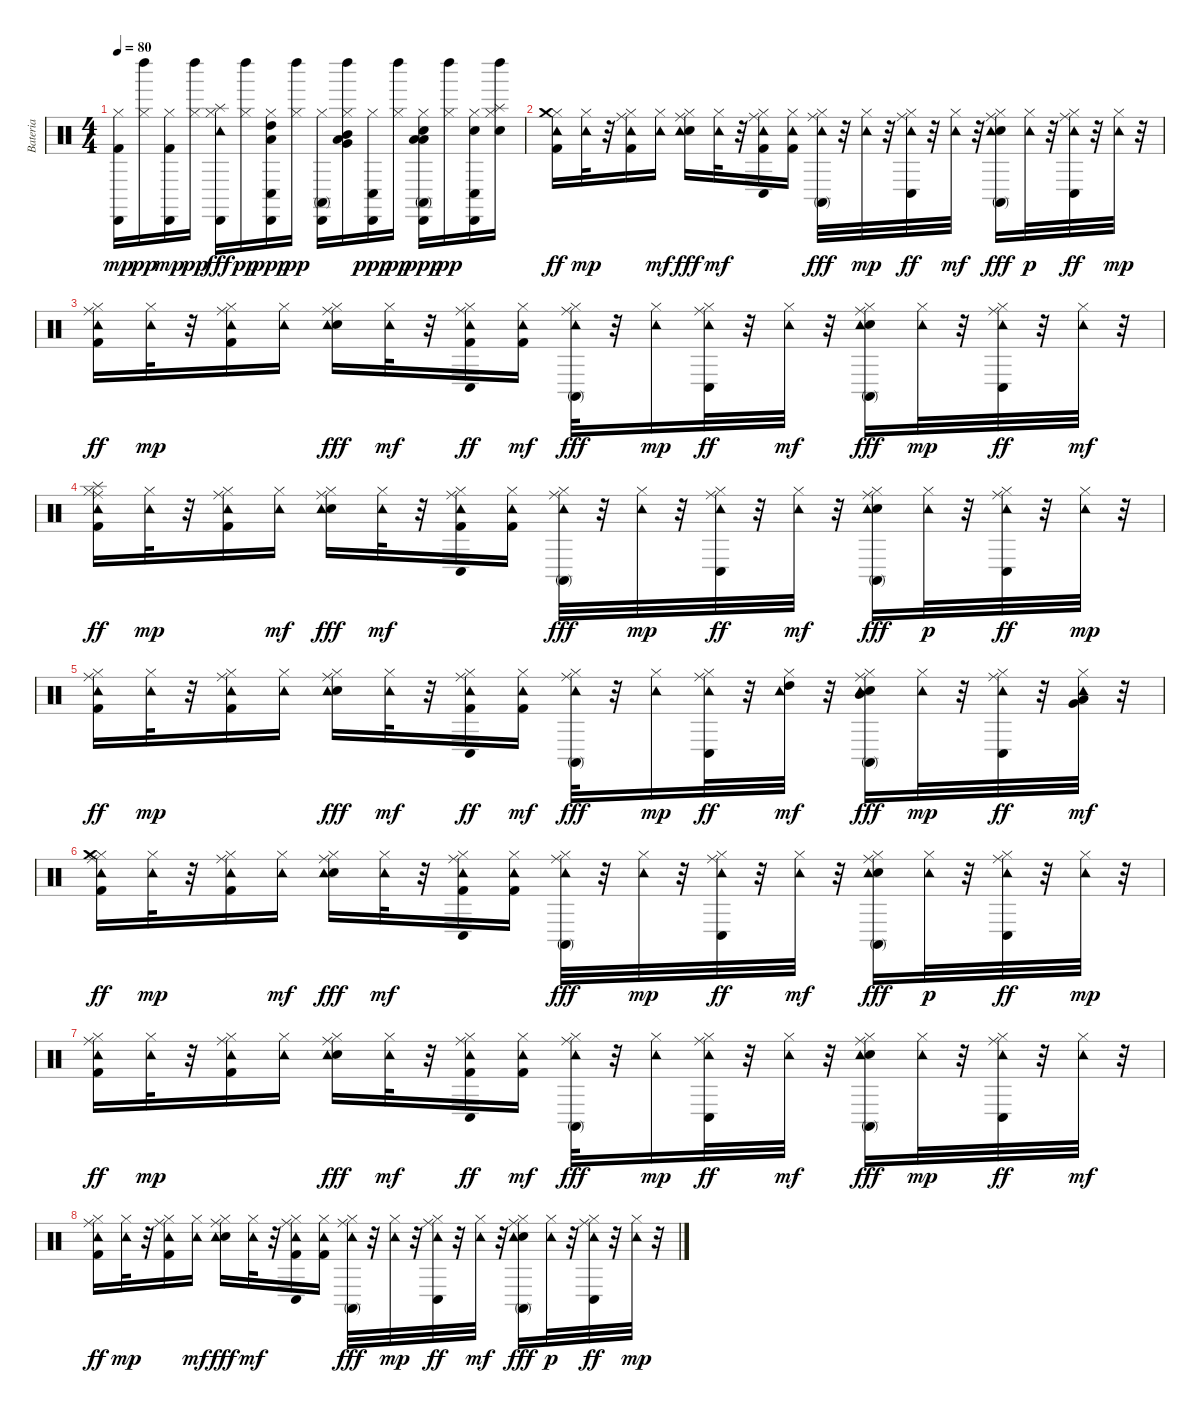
\track ("Bateria" "Bateria") {instrument percussion}
\staff {score}
\articulation defaults
\ts (4 4)
\tempo 80
\clef neutral
\ks c
("Hi-Hat (closed)" "Cabasa (hit)" "Kick (hit) 2").16{dy mp} ("Hi-Hat (closed)" "Left Maraca (hit)").16{dy pp} ("Hi-Hat (closed)" "Cabasa (hit)" "Kick (hit) 2").16{dy mp} ("Hi-Hat (closed)" "Left Maraca (hit)").16{dy pp} ("Hi-Hat (closed)" "Splash (hit)" "Cabasa (hit)" "Tambourine (hit)").16{dy fff} ("Hi-Hat (closed)" "Left Maraca (hit)").16{dy pp} ("Hi-Hat (closed)" "Conga low (hit)" "Cabasa (hit)" "High Tom (hit)" "Low Tom (hit)").16{dy ppp} ("Hi-Hat (closed)" "Left Maraca (hit)").16{dy pp} ("Hi-Hat (closed)" "Conga high (mute)" "Cabasa (hit)").16 ("Hi-Hat (closed)" "Left Maraca (hit)" "Very Low Tom (hit)" "Low Floor Tom (hit)" "Mid Tom (hit)").16 ("Hi-Hat (closed)" "Conga low (hit)" "Cabasa (hit)").16{dy ppp} ("Hi-Hat (closed)" "Left Maraca (hit)").16{dy pp} ("Electric Snare (hit)" "Hi-Hat (closed)" "Conga high (mute)" "Cabasa (hit)" "Low Floor Tom (hit)" "Low Tom (hit)").16{dy ppp} ("Hi-Hat (closed)" "Left Maraca (hit)").16{dy pp} ("Hi-Hat (closed)" "Conga low (hit)" "Electric Snare (hit)" "Cabasa (hit)").16 ("Hi-Hat (closed)" "Electric Snare (hit)" "Splash (hit)" "Left Maraca (hit)").16 |
("Hi-Hat (closed)" "Crash medium (hit)" "Tambourine (hit)" "Kick (hit) 2").16{dy ff} ("Hi-Hat (closed)" "Tambourine (hit)").32{dy mp} r.32 ("Hi-Hat (closed)" "Ride (middle)" "Tambourine (hit)" "Kick (hit) 2").16 ("Hi-Hat (closed)" "Tambourine (hit)").16{dy mf} ("Electric Snare (hit)" "Hi-Hat (closed)" "Ride (middle)" "Tambourine (hit)").16{dy fff} ("Hi-Hat (closed)" "Tambourine (hit)").32{dy mf} r.32 ("Hi-Hat (closed)" "Conga low (hit)" "Ride (middle)" "Tambourine (hit)" "Kick (hit) 2").16 ("Hi-Hat (closed)" "Tambourine (hit)" "Kick (hit) 2").16 ("Hi-Hat (closed)" "Conga high (mute)" "Ride (middle)" "Tambourine (hit)").32{dy fff} r.32 ("Hi-Hat (closed)" "Tambourine (hit)").32{dy mp} r.32 ("Hi-Hat (closed)" "Conga low (hit)" "Ride (middle)" "Tambourine (hit)").32{dy ff} r.32 ("Hi-Hat (closed)" "Tambourine (hit)").32{dy mf} r.32 ("Electric Snare (hit)" "Hi-Hat (closed)" "Conga high (mute)" "Ride (middle)" "Tambourine (hit)").16{dy fff} ("Hi-Hat (closed)" "Tambourine (hit)").32{dy p} r.32 ("Hi-Hat (closed)" "Conga low (hit)" "Ride (middle)" "Tambourine (hit)").32{dy ff} r.32 ("Hi-Hat (closed)" "Tambourine (hit)").32{dy mp} r.32 |
("Hi-Hat (closed)" "Ride (middle)" "Tambourine (hit)" "Kick (hit) 2").16{dy ff} ("Hi-Hat (closed)" "Tambourine (hit)").32{dy mp} r.32 ("Hi-Hat (closed)" "Ride (middle)" "Tambourine (hit)" "Kick (hit) 2").16 ("Hi-Hat (closed)" "Tambourine (hit)").16 ("Electric Snare (hit)" "Hi-Hat (closed)" "Ride (middle)" "Tambourine (hit)").16{dy fff} ("Hi-Hat (closed)" "Tambourine (hit)").32{dy mf} r.32 ("Hi-Hat (closed)" "Conga low (hit)" "Ride (middle)" "Tambourine (hit)" "Kick (hit) 2").16{dy ff} ("Hi-Hat (closed)" "Tambourine (hit)" "Kick (hit) 2").16{dy mf} ("Hi-Hat (closed)" "Conga high (mute)" "Ride (middle)" "Tambourine (hit)").32{dy fff} r.32 ("Hi-Hat (closed)" "Tambourine (hit)").16{dy mp} ("Hi-Hat (closed)" "Conga low (hit)" "Ride (middle)" "Tambourine (hit)").32{dy ff} r.32 ("Hi-Hat (closed)" "Tambourine (hit)").32{dy mf} r.32 ("Electric Snare (hit)" "Hi-Hat (closed)" "Conga high (mute)" "Ride (middle)" "Tambourine (hit)").16{dy fff} ("Hi-Hat (closed)" "Tambourine (hit)").32{dy mp} r.32 ("Hi-Hat (closed)" "Conga low (hit)" "Ride (middle)" "Tambourine (hit)").32{dy ff} r.32 ("Hi-Hat (closed)" "Tambourine (hit)").32{dy mf} r.32 |
("Hi-Hat (closed)" "Ride (middle)" "Splash (hit)" "Tambourine (hit)" "Kick (hit) 2").16{dy ff} ("Hi-Hat (closed)" "Tambourine (hit)").32{dy mp} r.32 ("Hi-Hat (closed)" "Ride (middle)" "Tambourine (hit)" "Kick (hit) 2").16 ("Hi-Hat (closed)" "Tambourine (hit)").16{dy mf} ("Electric Snare (hit)" "Hi-Hat (closed)" "Ride (middle)" "Tambourine (hit)").16{dy fff} ("Hi-Hat (closed)" "Tambourine (hit)").32{dy mf} r.32 ("Hi-Hat (closed)" "Conga low (hit)" "Ride (middle)" "Tambourine (hit)" "Kick (hit) 2").16 ("Hi-Hat (closed)" "Tambourine (hit)" "Kick (hit) 2").16 ("Hi-Hat (closed)" "Conga high (mute)" "Ride (middle)" "Tambourine (hit)").32{dy fff} r.32 ("Hi-Hat (closed)" "Tambourine (hit)").32{dy mp} r.32 ("Hi-Hat (closed)" "Conga low (hit)" "Ride (middle)" "Tambourine (hit)").32{dy ff} r.32 ("Hi-Hat (closed)" "Tambourine (hit)").32{dy mf} r.32 ("Electric Snare (hit)" "Hi-Hat (closed)" "Conga high (mute)" "Ride (middle)" "Tambourine (hit)").16{dy fff} ("Hi-Hat (closed)" "Tambourine (hit)").32{dy p} r.32 ("Hi-Hat (closed)" "Conga low (hit)" "Ride (middle)" "Tambourine (hit)").32{dy ff} r.32 ("Hi-Hat (closed)" "Tambourine (hit)").32{dy mp} r.32 |
("Hi-Hat (closed)" "Ride (middle)" "Tambourine (hit)" "Kick (hit) 2").16{dy ff} ("Hi-Hat (closed)" "Tambourine (hit)").32{dy mp} r.32 ("Hi-Hat (closed)" "Ride (middle)" "Tambourine (hit)" "Kick (hit) 2").16 ("Hi-Hat (closed)" "Tambourine (hit)").16 ("Electric Snare (hit)" "Hi-Hat (closed)" "Ride (middle)" "Tambourine (hit)").16{dy fff} ("Hi-Hat (closed)" "Tambourine (hit)").32{dy mf} r.32 ("Hi-Hat (closed)" "Conga low (hit)" "Ride (middle)" "Tambourine (hit)" "Kick (hit) 2").16{dy ff} ("Hi-Hat (closed)" "Tambourine (hit)" "Kick (hit) 2").16{dy mf} ("Hi-Hat (closed)" "Conga high (mute)" "Ride (middle)" "Tambourine (hit)").32{dy fff} r.32 ("Hi-Hat (closed)" "Tambourine (hit)").16{dy mp} ("Hi-Hat (closed)" "Conga low (hit)" "Ride (middle)" "Tambourine (hit)").32{dy ff} r.32 ("Hi-Hat (closed)" "Tambourine (hit)" "High Tom (hit)").32{dy mf} r.32 ("Electric Snare (hit)" "Hi-Hat (closed)" "Conga high (mute)" "Ride (middle)" "Tambourine (hit)" "Mid Tom (hit)").16{dy fff} ("Hi-Hat (closed)" "Tambourine (hit)").32{dy mp} r.32 ("Hi-Hat (closed)" "Conga low (hit)" "Ride (middle)" "Tambourine (hit)").32{dy ff} r.32 ("Hi-Hat (closed)" "Tambourine (hit)" "Very Low Tom (hit)" "Low Tom (hit)").32{dy mf} r.32 |
("Hi-Hat (closed)" "Ride (middle)" "Crash medium (hit)" "Tambourine (hit)" "Kick (hit) 2").16{dy ff} ("Hi-Hat (closed)" "Tambourine (hit)").32{dy mp} r.32 ("Hi-Hat (closed)" "Ride (middle)" "Tambourine (hit)" "Kick (hit) 2").16 ("Hi-Hat (closed)" "Tambourine (hit)").16{dy mf} ("Electric Snare (hit)" "Hi-Hat (closed)" "Ride (middle)" "Tambourine (hit)").16{dy fff} ("Hi-Hat (closed)" "Tambourine (hit)").32{dy mf} r.32 ("Hi-Hat (closed)" "Conga low (hit)" "Ride (middle)" "Tambourine (hit)" "Kick (hit) 2").16 ("Hi-Hat (closed)" "Tambourine (hit)" "Kick (hit) 2").16 ("Hi-Hat (closed)" "Conga high (mute)" "Ride (middle)" "Tambourine (hit)").32{dy fff} r.32 ("Hi-Hat (closed)" "Tambourine (hit)").32{dy mp} r.32 ("Hi-Hat (closed)" "Conga low (hit)" "Ride (middle)" "Tambourine (hit)").32{dy ff} r.32 ("Hi-Hat (closed)" "Tambourine (hit)").32{dy mf} r.32 ("Electric Snare (hit)" "Hi-Hat (closed)" "Conga high (mute)" "Ride (middle)" "Tambourine (hit)").16{dy fff} ("Hi-Hat (closed)" "Tambourine (hit)").32{dy p} r.32 ("Hi-Hat (closed)" "Conga low (hit)" "Ride (middle)" "Tambourine (hit)").32{dy ff} r.32 ("Hi-Hat (closed)" "Tambourine (hit)").32{dy mp} r.32 |
("Hi-Hat (closed)" "Ride (middle)" "Tambourine (hit)" "Kick (hit) 2").16{dy ff} ("Hi-Hat (closed)" "Tambourine (hit)").32{dy mp} r.32 ("Hi-Hat (closed)" "Ride (middle)" "Tambourine (hit)" "Kick (hit) 2").16 ("Hi-Hat (closed)" "Tambourine (hit)").16 ("Electric Snare (hit)" "Hi-Hat (closed)" "Ride (middle)" "Tambourine (hit)").16{dy fff} ("Hi-Hat (closed)" "Tambourine (hit)").32{dy mf} r.32 ("Hi-Hat (closed)" "Conga low (hit)" "Ride (middle)" "Tambourine (hit)" "Kick (hit) 2").16{dy ff} ("Hi-Hat (closed)" "Tambourine (hit)" "Kick (hit) 2").16{dy mf} ("Hi-Hat (closed)" "Conga high (mute)" "Ride (middle)" "Tambourine (hit)").32{dy fff} r.32 ("Hi-Hat (closed)" "Tambourine (hit)").16{dy mp} ("Hi-Hat (closed)" "Conga low (hit)" "Ride (middle)" "Tambourine (hit)").32{dy ff} r.32 ("Hi-Hat (closed)" "Tambourine (hit)").32{dy mf} r.32 ("Electric Snare (hit)" "Hi-Hat (closed)" "Conga high (mute)" "Ride (middle)" "Tambourine (hit)").16{dy fff} ("Hi-Hat (closed)" "Tambourine (hit)").32{dy mp} r.32 ("Hi-Hat (closed)" "Conga low (hit)" "Ride (middle)" "Tambourine (hit)").32{dy ff} r.32 ("Hi-Hat (closed)" "Tambourine (hit)").32{dy mf} r.32 |
("Hi-Hat (closed)" "Ride (middle)" "Tambourine (hit)" "Kick (hit) 2").16{dy ff} ("Hi-Hat (closed)" "Tambourine (hit)").32{dy mp} r.32 ("Hi-Hat (closed)" "Ride (middle)" "Tambourine (hit)" "Kick (hit) 2").16 ("Hi-Hat (closed)" "Tambourine (hit)").16{dy mf} ("Electric Snare (hit)" "Hi-Hat (closed)" "Ride (middle)" "Tambourine (hit)").16{dy fff} ("Hi-Hat (closed)" "Tambourine (hit)").32{dy mf} r.32 ("Hi-Hat (closed)" "Conga low (hit)" "Ride (middle)" "Tambourine (hit)" "Kick (hit) 2").16 ("Hi-Hat (closed)" "Tambourine (hit)" "Kick (hit) 2").16 ("Hi-Hat (closed)" "Conga high (mute)" "Ride (middle)" "Tambourine (hit)").32{dy fff} r.32 ("Hi-Hat (closed)" "Tambourine (hit)").32{dy mp} r.32 ("Hi-Hat (closed)" "Conga low (hit)" "Ride (middle)" "Tambourine (hit)").32{dy ff} r.32 ("Hi-Hat (closed)" "Tambourine (hit)").32{dy mf} r.32 ("Electric Snare (hit)" "Hi-Hat (closed)" "Conga high (mute)" "Ride (middle)" "Tambourine (hit)").16{dy fff} ("Hi-Hat (closed)" "Tambourine (hit)").32{dy p} r.32 ("Hi-Hat (closed)" "Conga low (hit)" "Ride (middle)" "Tambourine (hit)").32{dy ff} r.32 ("Hi-Hat (closed)" "Tambourine (hit)").32{dy mp} r.32
